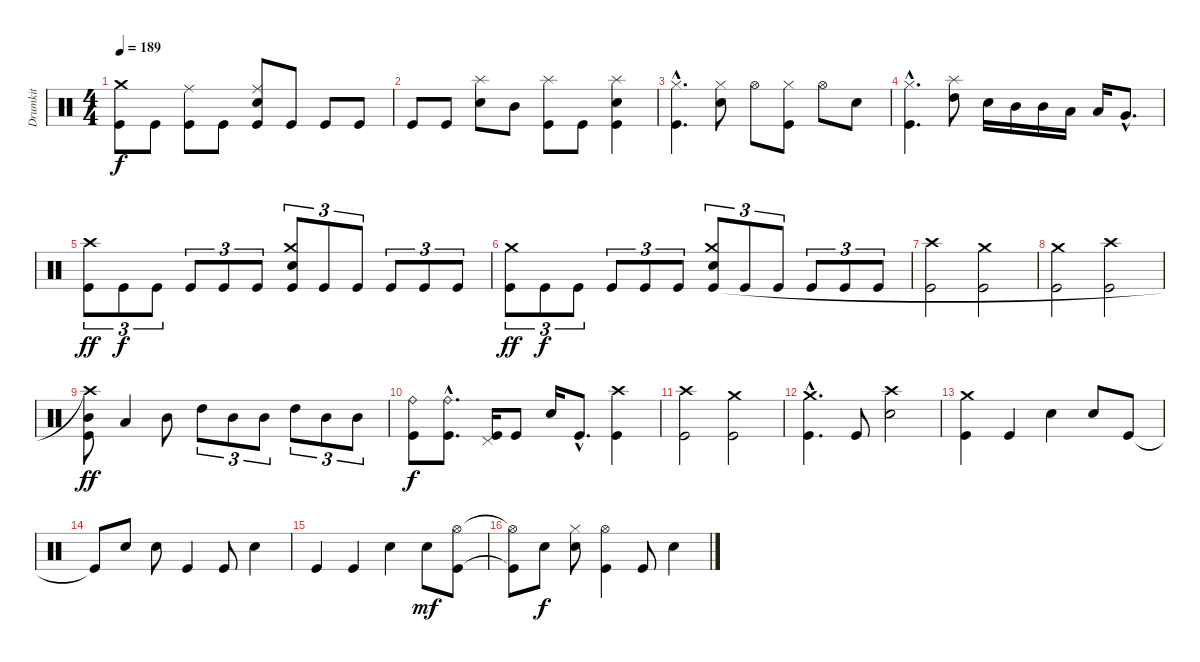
\track ("Drumkit" "Drumkit") {instrument percussion}
\staff {score}
\articulation defaults
\ts (4 4)
\tempo 189
\clef neutral
\ks c
("Kick (hit)" "Crash medium (hit)").8{dy f} "Kick (hit)".8 ("Kick (hit)" "Ride (middle)").8 "Kick (hit)".8 ("Kick (hit)" "Snare (hit) 2" "Ride (middle)").8 "Kick (hit)".8 "Kick (hit)".8 "Kick (hit)".8 |
"Kick (hit)".8 "Kick (hit)".8 ("Snare (hit) 2" "Splash (hit)").8 "Mid Tom (hit)".8 ("Kick (hit)" "Splash (hit)").8 "Kick (hit)".8 ("Kick (hit)" "Snare (hit) 2" "Splash (hit)").4 |
("Kick (hit)"{hac} "Hi-Hat (closed)"{hac}).4{d} ("Snare (hit) 2" "Hi-Hat (closed)").8 "Hi-Hat (open)".8 ("Hi-Hat (closed)" "Kick (hit)").8 "Hi-Hat (open)".8 "Snare (hit) 2".8 |
("Kick (hit)"{hac} "Hi-Hat (closed)"{hac}).4{d} ("Splash (hit)" "High Tom (hit)").8 "Snare (hit) 2".16 "Mid Tom (hit)".16 "Mid Tom (hit)".16 "Low Tom (hit)".16 "Low Tom (hit)".16 "Very Low Tom (hit)"{hac}.8{d} |
("Kick (hit)" "Crash high (hit)").8{tu (3 2) dy ff} "Kick (hit)".8{tu (3 2) dy f} "Kick (hit)".8{tu (3 2)} "Kick (hit)".8{tu (3 2)} "Kick (hit)".8{tu (3 2)} "Kick (hit)".8{tu (3 2)} ("Snare (hit) 2" "Crash medium (hit)" "Kick (hit)").8{tu (3 2)} "Kick (hit)".8{tu (3 2)} "Kick (hit)".8{tu (3 2)} "Kick (hit)".8{tu (3 2)} "Kick (hit)".8{tu (3 2)} "Kick (hit)".8{tu (3 2)} |
("Kick (hit)" "Crash medium (hit)").8{tu (3 2) dy ff} "Kick (hit)".8{tu (3 2) dy f} "Kick (hit)".8{tu (3 2)} "Kick (hit)".8{tu (3 2)} "Kick (hit)".8{tu (3 2)} "Kick (hit)".8{tu (3 2)} ("Snare (hit) 2" "Crash medium (hit)" "Kick (hit)").8{tu (3 2)} "Kick (hit)".8{tu (3 2)} "Kick (hit)".8{tu (3 2)} "Kick (hit)".8{tu (3 2)} "Kick (hit)".8{tu (3 2)} "Kick (hit)".8{tu (3 2)} |
("Kick (hit)" "Crash high (hit)").2 ("Crash medium (hit)" "Kick (hit)").2 |
("Kick (hit)" "Crash medium (hit)").2 ("Crash high (hit)" "Kick (hit)").2 |
("Kick (hit)" "Mid Tom (hit)" "Crash high (hit)"{t}).8{dy ff} "Low Tom (hit)".4 "Mid Tom (hit)".8 "High Tom (hit)".8{tu (3 2)} "Mid Tom (hit)".8{tu (3 2)} "Mid Tom (hit)".8{tu (3 2)} "High Tom (hit)".8{tu (3 2)} "Mid Tom (hit)".8{tu (3 2)} "Mid Tom (hit)".8{tu (3 2)} |
("Kick (hit)" "Ride (bell)").8{dy f} ("Kick (hit)"{hac} "Ride (bell)"{hac}).8{d} ("Kick (hit)" "Pedal Hi-Hat (hit)").16 "Kick (hit)".8 "Snare (hit) 2".16 "Kick (hit)"{hac}.8{d} ("Kick (hit)" "Crash high (hit)").4 |
("Kick (hit)" "Crash high (hit)").2 ("Crash medium (hit)" "Kick (hit)").2 |
("Kick (hit)"{hac} "Crash medium (hit)"{hac}).4{d} "Kick (hit)".8 ("Crash high (hit)" "Snare (hit) 2").2 |
("Crash medium (hit)" "Kick (hit)").4 "Kick (hit)".4 "Snare (hit) 2".4 "Snare (hit) 2".8 "Kick (hit)".8 |
"Kick (hit)"{t}.8 "Snare (hit) 2".8 "Snare (hit) 2".8 "Kick (hit)".4 "Kick (hit)".8 "Snare (hit) 2".4 |
"Kick (hit)".4 "Kick (hit)".4 "Snare (hit) 2".4 "Snare (hit) 2".8{dy mf} ("Kick (hit)" "Hi-Hat (open)").8 |
("Kick (hit)"{t} "Hi-Hat (open)"{t}).8 "Snare (hit) 2".8{dy f} ("Snare (hit) 2" "Hi-Hat (closed)").8 ("Kick (hit)" "Hi-Hat (open)").4 "Kick (hit)".8 "Snare (hit) 2".4
